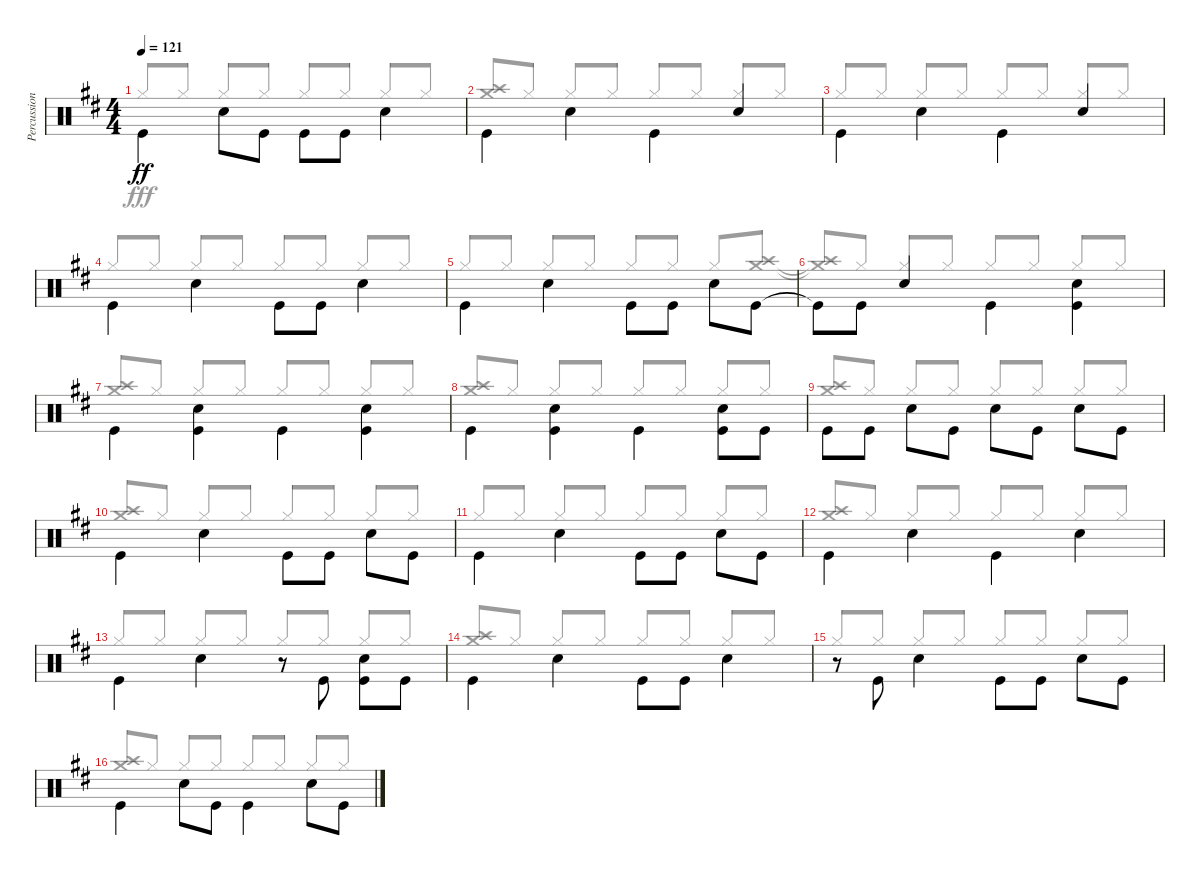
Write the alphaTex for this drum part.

\track ("Percussions" "Percussion") {instrument percussion}
\staff {score}
\articulation defaults
\voice
\ts (4 4)
\tempo 121
\clef neutral
\ks d "Kick (hit)".4{dy ff beam Down} "Snare (hit) 2".8{beam Down} "Kick (hit)".8{beam Down} "Kick (hit)".8{beam Down} "Kick (hit)".8{beam Down} "Snare (hit) 2".4{beam Down}
|
"Kick (hit)".4{beam Down} "Snare (hit) 2".4{beam Down} "Kick (hit)".4{beam Down} "Snare (hit) 2".4 |
"Kick (hit)".4{beam Down} "Snare (hit) 2".4{beam Down} "Kick (hit)".4{beam Down} "Snare (hit) 2".4 |
"Kick (hit)".4{beam Down} "Snare (hit) 2".4{beam Down} "Kick (hit)".8{beam Down} "Kick (hit)".8{beam Down} "Snare (hit) 2".4{beam Down} |
"Kick (hit)".4{beam Down} "Snare (hit) 2".4{beam Down} "Kick (hit)".8{beam Down} "Kick (hit)".8{beam Down} "Snare (hit) 2".8{beam Down} "Kick (hit)".8{beam Down} |
"Kick (hit)"{t}.8{beam Down} "Kick (hit)".8{beam Down} "Snare (hit) 2".4 "Kick (hit)".4{beam Down} ("Snare (hit) 2" "Kick (hit)").4{beam Down} |
"Kick (hit)".4{beam Down} ("Snare (hit) 2" "Kick (hit)").4{beam Down} "Kick (hit)".4{beam Down} ("Snare (hit) 2" "Kick (hit)").4{beam Down} |
"Kick (hit)".4{beam Down} ("Snare (hit) 2" "Kick (hit)").4{beam Down} "Kick (hit)".4{beam Down} ("Snare (hit) 2" "Kick (hit)").8{beam Down} "Kick (hit)".8{beam Down} |
"Kick (hit)".8{beam Down} "Kick (hit)".8{beam Down} "Snare (hit) 2".8{beam Down} "Kick (hit)".8{beam Down} "Snare (hit) 2".8{beam Down} "Kick (hit)".8{beam Down} "Snare (hit) 2".8{beam Down} "Kick (hit)".8{beam Down} |
"Kick (hit)".4{beam Down} "Snare (hit) 2".4{beam Down} "Kick (hit)".8{beam Down} "Kick (hit)".8{beam Down} "Snare (hit) 2".8{beam Down} "Kick (hit)".8{beam Down} |
"Kick (hit)".4{beam Down} "Snare (hit) 2".4{beam Down} "Kick (hit)".8{beam Down} "Kick (hit)".8{beam Down} "Snare (hit) 2".8{beam Down} "Kick (hit)".8{beam Down} |
"Kick (hit)".4{beam Down} "Snare (hit) 2".4{beam Down} "Kick (hit)".4{beam Down} "Snare (hit) 2".4{beam Down} |
"Kick (hit)".4{beam Down} "Snare (hit) 2".4{beam Down} r.8 "Kick (hit)".8{beam Down} ("Snare (hit) 2" "Kick (hit)").8{beam Down} "Kick (hit)".8{beam Down} |
"Kick (hit)".4{beam Down} "Snare (hit) 2".4{beam Down} "Kick (hit)".8{beam Down} "Kick (hit)".8{beam Down} "Snare (hit) 2".4{beam Down} |
r.8 "Kick (hit)".8{beam Down} "Snare (hit) 2".4{beam Down} "Kick (hit)".8{beam Down} "Kick (hit)".8{beam Down} "Snare (hit) 2".8{beam Down} "Kick (hit)".8{beam Down} |
"Kick (hit)".4{beam Down} "Snare (hit) 2".8{beam Down} "Kick (hit)".8{beam Down} "Kick (hit)".4{beam Down} "Snare (hit) 2".8{beam Down} "Kick (hit)".8{beam Down}
\voice
\clef neutral
\ottava regular
\simile none
\ks d "Hi-Hat (closed)".8{dy fff beam Up} "Hi-Hat (closed)".8 "Hi-Hat (closed)".8{beam Up} "Hi-Hat (closed)".8{beam Up} "Hi-Hat (closed)".8{beam Up} "Hi-Hat (closed)".8{beam Up} "Hi-Hat (closed)".8{beam Up} "Hi-Hat (closed)".8{beam Up}
|
("Crash medium (hit)" "Crash high (hit)").8{beam Up} "Hi-Hat (closed)".8{beam Up} "Hi-Hat (closed)".8{beam Up} "Hi-Hat (closed)".8{beam Up} "Hi-Hat (closed)".8{beam Up} "Hi-Hat (closed)".8{beam Up} "Hi-Hat (closed)".8{beam Up} "Hi-Hat (closed)".8{beam Up} |
"Hi-Hat (closed)".8{beam Up} "Hi-Hat (closed)".8 "Hi-Hat (closed)".8{beam Up} "Hi-Hat (closed)".8{beam Up} "Hi-Hat (closed)".8{beam Up} "Hi-Hat (closed)".8{beam Up} "Hi-Hat (closed)".8{beam Up} "Hi-Hat (closed)".8{beam Up} |
"Hi-Hat (closed)".8{beam Up} "Hi-Hat (closed)".8 "Hi-Hat (closed)".8{beam Up} "Hi-Hat (closed)".8{beam Up} "Hi-Hat (closed)".8{beam Up} "Hi-Hat (closed)".8{beam Up} "Hi-Hat (closed)".8{beam Up} "Hi-Hat (closed)".8{beam Up} |
"Hi-Hat (closed)".8{beam Up} "Hi-Hat (closed)".8 "Hi-Hat (closed)".8{beam Up} "Hi-Hat (closed)".8{beam Up} "Hi-Hat (closed)".8{beam Up} "Hi-Hat (closed)".8{beam Up} "Hi-Hat (closed)".8{beam Up} ("Crash medium (hit)" "Crash high (hit)").8{beam Up} |
("Crash medium (hit)"{t} "Crash high (hit)"{t}).8{beam Up} "Hi-Hat (closed)".8 "Hi-Hat (closed)".8{beam Up} "Hi-Hat (closed)".8{beam Up} "Hi-Hat (closed)".8{beam Up} "Hi-Hat (closed)".8{beam Up} "Hi-Hat (closed)".8{beam Up} "Hi-Hat (closed)".8{beam Up} |
("Crash medium (hit)" "Crash high (hit)").8{beam Up} "Hi-Hat (closed)".8{beam Up} "Hi-Hat (closed)".8{beam Up} "Hi-Hat (closed)".8{beam Up} "Hi-Hat (closed)".8{beam Up} "Hi-Hat (closed)".8{beam Up} "Hi-Hat (closed)".8{beam Up} "Hi-Hat (closed)".8{beam Up} |
("Crash medium (hit)" "Crash high (hit)").8{beam Up} "Hi-Hat (closed)".8{beam Up} "Hi-Hat (closed)".8{beam Up} "Hi-Hat (closed)".8{beam Up} "Hi-Hat (closed)".8{beam Up} "Hi-Hat (closed)".8{beam Up} "Hi-Hat (closed)".8{beam Up} "Hi-Hat (closed)".8{beam Up} |
("Crash medium (hit)" "Crash high (hit)").8{beam Up} "Hi-Hat (closed)".8{beam Up} "Hi-Hat (closed)".8{beam Up} "Hi-Hat (closed)".8{beam Up} "Hi-Hat (closed)".8{beam Up} "Hi-Hat (closed)".8{beam Up} "Hi-Hat (closed)".8{beam Up} "Hi-Hat (closed)".8{beam Up} |
("Crash medium (hit)" "Crash high (hit)").8{beam Up} "Hi-Hat (closed)".8{beam Up} "Hi-Hat (closed)".8{beam Up} "Hi-Hat (closed)".8{beam Up} "Hi-Hat (closed)".8{beam Up} "Hi-Hat (closed)".8{beam Up} "Hi-Hat (closed)".8{beam Up} "Hi-Hat (closed)".8{beam Up} |
"Hi-Hat (closed)".8{beam Up} "Hi-Hat (closed)".8 "Hi-Hat (closed)".8{beam Up} "Hi-Hat (closed)".8{beam Up} "Hi-Hat (closed)".8{beam Up} "Hi-Hat (closed)".8{beam Up} "Hi-Hat (closed)".8{beam Up} "Hi-Hat (closed)".8{beam Up} |
("Crash medium (hit)" "Crash high (hit)").8{beam Up} "Hi-Hat (closed)".8{beam Up} "Hi-Hat (closed)".8{beam Up} "Hi-Hat (closed)".8{beam Up} "Hi-Hat (closed)".8{beam Up} "Hi-Hat (closed)".8{beam Up} "Hi-Hat (closed)".8{beam Up} "Hi-Hat (closed)".8{beam Up} |
"Hi-Hat (closed)".8{beam Up} "Hi-Hat (closed)".8 "Hi-Hat (closed)".8{beam Up} "Hi-Hat (closed)".8{beam Up} "Hi-Hat (closed)".8{beam Up} "Hi-Hat (closed)".8{beam Up} "Hi-Hat (closed)".8{beam Up} "Hi-Hat (closed)".8{beam Up} |
("Crash medium (hit)" "Crash high (hit)").8{beam Up} "Hi-Hat (closed)".8{beam Up} "Hi-Hat (closed)".8{beam Up} "Hi-Hat (closed)".8{beam Up} "Hi-Hat (closed)".8{beam Up} "Hi-Hat (closed)".8{beam Up} "Hi-Hat (closed)".8{beam Up} "Hi-Hat (closed)".8{beam Up} |
"Hi-Hat (closed)".8{beam Up} "Hi-Hat (closed)".8 "Hi-Hat (closed)".8{beam Up} "Hi-Hat (closed)".8{beam Up} "Hi-Hat (closed)".8{beam Up} "Hi-Hat (closed)".8{beam Up} "Hi-Hat (closed)".8{beam Up} "Hi-Hat (closed)".8{beam Up} |
("Crash medium (hit)" "Crash high (hit)").8{beam Up} "Hi-Hat (closed)".8{beam Up} "Hi-Hat (closed)".8{beam Up} "Hi-Hat (closed)".8{beam Up} "Hi-Hat (closed)".8{beam Up} "Hi-Hat (closed)".8{beam Up} "Hi-Hat (closed)".8{beam Up} "Hi-Hat (closed)".8{beam Up}
